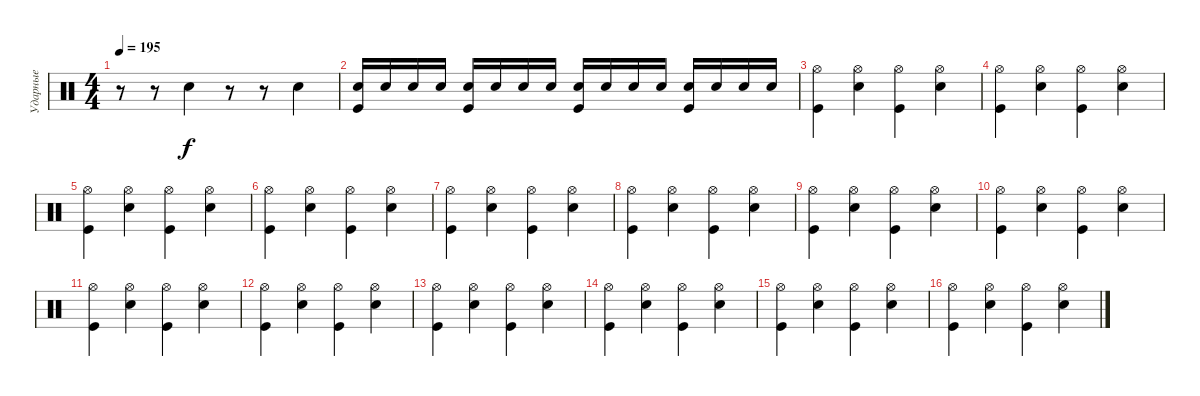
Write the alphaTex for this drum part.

\track ("Ударные" "Ударные") {instrument percussion}
\staff {score}
\articulation defaults
\ts (4 4)
\tempo 195
\clef neutral
\ks c
r.8{dy f} r.8 "Electric Snare (hit)".4 r.8 r.8 "Electric Snare (hit)".4 |
("Kick (hit)" "Electric Snare (hit)").16 "Electric Snare (hit)".16 "Electric Snare (hit)".16 "Electric Snare (hit)".16 ("Kick (hit)" "Electric Snare (hit)").16 "Electric Snare (hit)".16 "Electric Snare (hit)".16 "Electric Snare (hit)".16 ("Kick (hit)" "Electric Snare (hit)").16 "Electric Snare (hit)".16 "Electric Snare (hit)".16 "Electric Snare (hit)".16 ("Kick (hit)" "Electric Snare (hit)").16 "Electric Snare (hit)".16 "Electric Snare (hit)".16 "Electric Snare (hit)".16 |
("Hi-Hat (open)" "Kick (hit)").4 ("Hi-Hat (open)" "Electric Snare (hit)").4 ("Hi-Hat (open)" "Kick (hit)").4 ("Hi-Hat (open)" "Electric Snare (hit)").4 |
("Hi-Hat (open)" "Kick (hit)").4 ("Hi-Hat (open)" "Electric Snare (hit)").4 ("Hi-Hat (open)" "Kick (hit)").4 ("Hi-Hat (open)" "Electric Snare (hit)").4 |
("Hi-Hat (open)" "Kick (hit)").4 ("Hi-Hat (open)" "Electric Snare (hit)").4 ("Hi-Hat (open)" "Kick (hit)").4 ("Hi-Hat (open)" "Electric Snare (hit)").4 |
("Hi-Hat (open)" "Kick (hit)").4 ("Hi-Hat (open)" "Electric Snare (hit)").4 ("Hi-Hat (open)" "Kick (hit)").4 ("Hi-Hat (open)" "Electric Snare (hit)").4 |
("Hi-Hat (open)" "Kick (hit)").4 ("Hi-Hat (open)" "Electric Snare (hit)").4 ("Hi-Hat (open)" "Kick (hit)").4 ("Hi-Hat (open)" "Electric Snare (hit)").4 |
("Hi-Hat (open)" "Kick (hit)").4 ("Hi-Hat (open)" "Electric Snare (hit)").4 ("Hi-Hat (open)" "Kick (hit)").4 ("Hi-Hat (open)" "Electric Snare (hit)").4 |
("Hi-Hat (open)" "Kick (hit)").4 ("Hi-Hat (open)" "Electric Snare (hit)").4 ("Hi-Hat (open)" "Kick (hit)").4 ("Hi-Hat (open)" "Electric Snare (hit)").4 |
("Hi-Hat (open)" "Kick (hit)").4 ("Hi-Hat (open)" "Electric Snare (hit)").4 ("Hi-Hat (open)" "Kick (hit)").4 ("Hi-Hat (open)" "Electric Snare (hit)").4 |
("Hi-Hat (open)" "Kick (hit)").4 ("Hi-Hat (open)" "Electric Snare (hit)").4 ("Hi-Hat (open)" "Kick (hit)").4 ("Hi-Hat (open)" "Electric Snare (hit)").4 |
("Hi-Hat (open)" "Kick (hit)").4 ("Hi-Hat (open)" "Electric Snare (hit)").4 ("Hi-Hat (open)" "Kick (hit)").4 ("Hi-Hat (open)" "Electric Snare (hit)").4 |
("Hi-Hat (open)" "Kick (hit)").4 ("Hi-Hat (open)" "Electric Snare (hit)").4 ("Hi-Hat (open)" "Kick (hit)").4 ("Hi-Hat (open)" "Electric Snare (hit)").4 |
("Hi-Hat (open)" "Kick (hit)").4 ("Hi-Hat (open)" "Electric Snare (hit)").4 ("Hi-Hat (open)" "Kick (hit)").4 ("Hi-Hat (open)" "Electric Snare (hit)").4 |
("Hi-Hat (open)" "Kick (hit)").4 ("Hi-Hat (open)" "Electric Snare (hit)").4 ("Hi-Hat (open)" "Kick (hit)").4 ("Hi-Hat (open)" "Electric Snare (hit)").4 |
("Hi-Hat (open)" "Kick (hit)").4 ("Hi-Hat (open)" "Electric Snare (hit)").4 ("Hi-Hat (open)" "Kick (hit)").4 ("Hi-Hat (open)" "Electric Snare (hit)").4
